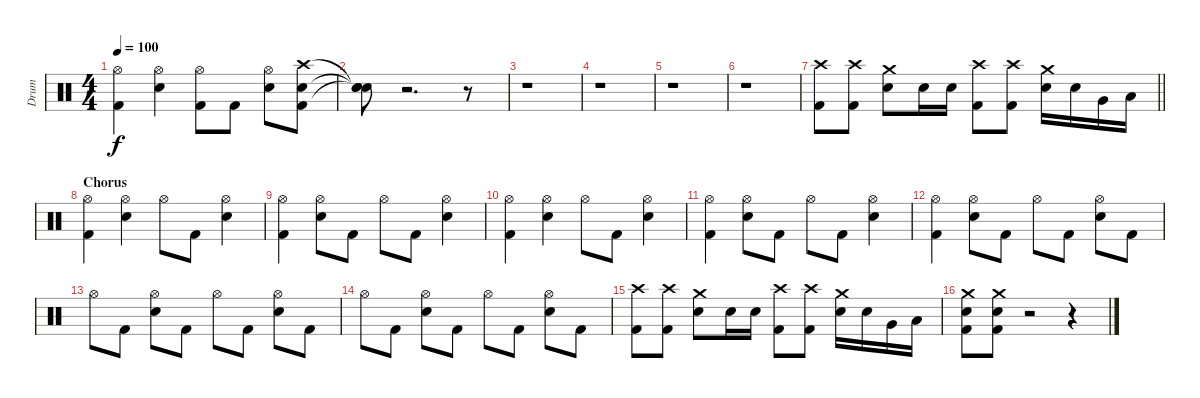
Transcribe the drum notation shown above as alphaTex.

\track ("Drum" "Drum") {instrument percussion}
\staff {score}
\articulation defaults
\ts (4 4)
\tempo 100
\clef neutral
\ks c
("Hi-Hat (open)" "Kick (hit) 2").4{dy f} ("Hi-Hat (open)" "Electric Snare (hit)").4 ("Hi-Hat (open)" "Kick (hit) 2").8 "Kick (hit) 2".8 ("Hi-Hat (open)" "Electric Snare (hit)").8 ("Crash high (hit)" "Kick (hit) 2" "Electric Snare (hit)").8 |
("Snare (hit)"{t} "Snare (hit)"{t} "Snare (hit)"{t}).8 r.2{d} r.8 |
r.1 |
r.1 |
r.1 |
r.1 |
\barLineRight lightlight
("Kick (hit) 2" "Crash high (hit)").8 ("Kick (hit) 2" "Crash high (hit)").8 ("Electric Snare (hit)" "Crash medium (hit)").8 "Electric Snare (hit)".16 "Electric Snare (hit)".16 ("Kick (hit) 2" "Crash high (hit)").8 ("Kick (hit) 2" "Crash high (hit)").8 ("Electric Snare (hit)" "Crash medium (hit)").16 "Electric Snare (hit)".16 "Very Low Tom (hit)".16 "Low Floor Tom (hit)".16 |
\section ("" "Chorus")
("Hi-Hat (open)" "Kick (hit) 2").4 ("Hi-Hat (open)" "Electric Snare (hit)").4 "Hi-Hat (open)".8 "Kick (hit) 2".8 ("Hi-Hat (open)" "Electric Snare (hit)").4 |
("Kick (hit) 2" "Hi-Hat (open)").4 ("Electric Snare (hit)" "Hi-Hat (open)").8 "Kick (hit) 2".8 "Hi-Hat (open)".8 "Kick (hit) 2".8 ("Electric Snare (hit)" "Hi-Hat (open)").4 |
("Hi-Hat (open)" "Kick (hit) 2").4 ("Hi-Hat (open)" "Electric Snare (hit)").4 "Hi-Hat (open)".8 "Kick (hit) 2".8 ("Hi-Hat (open)" "Electric Snare (hit)").4 |
("Kick (hit) 2" "Hi-Hat (open)").4 ("Electric Snare (hit)" "Hi-Hat (open)").8 "Kick (hit) 2".8 "Hi-Hat (open)".8 "Kick (hit) 2".8 ("Electric Snare (hit)" "Hi-Hat (open)").4 |
("Hi-Hat (open)" "Kick (hit) 2").4 ("Hi-Hat (open)" "Electric Snare (hit)").8 "Kick (hit) 2".8 "Hi-Hat (open)".8 "Kick (hit) 2".8 ("Electric Snare (hit)" "Hi-Hat (open)").8 "Kick (hit) 2".8 |
"Hi-Hat (open)".8 "Kick (hit) 2".8 ("Hi-Hat (open)" "Electric Snare (hit)").8 "Kick (hit) 2".8 "Hi-Hat (open)".8 "Kick (hit) 2".8 ("Electric Snare (hit)" "Hi-Hat (open)").8 "Kick (hit) 2".8 |
"Hi-Hat (open)".8 "Kick (hit) 2".8 ("Electric Snare (hit)" "Hi-Hat (open)").8 "Kick (hit) 2".8 "Hi-Hat (open)".8 "Kick (hit) 2".8 ("Electric Snare (hit)" "Hi-Hat (open)").8 "Kick (hit) 2".8 |
("Kick (hit) 2" "Crash high (hit)").8 ("Kick (hit) 2" "Crash high (hit)").8 ("Electric Snare (hit)" "Crash medium (hit)").8 "Electric Snare (hit)".16 "Electric Snare (hit)".16 ("Kick (hit) 2" "Crash high (hit)").8 ("Kick (hit) 2" "Crash high (hit)").8 ("Electric Snare (hit)" "Crash medium (hit)").16 "Electric Snare (hit)".16 "Very Low Tom (hit)".16 "Low Floor Tom (hit)".16 |
("Kick (hit) 2" "Electric Snare (hit)" "Crash medium (hit)").8 ("Kick (hit) 2" "Electric Snare (hit)" "Crash medium (hit)").8 r.2 r.4
